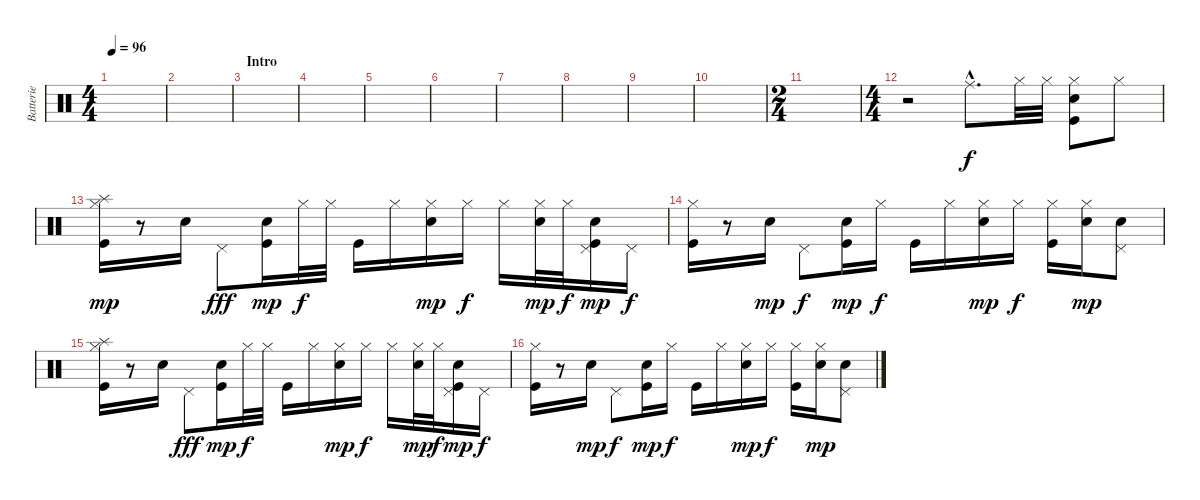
\track ("Batterie" "Batterie") {instrument percussion}
\staff {score}
\articulation defaults
\ts (4 4)
\tempo 96
\clef neutral
\ks c
|
|
\section ("" "Intro")
|
|
|
|
|
|
|
|
\ts (2 4)
|
\ts (4 4)
r.2 "Ride (middle)"{hac}.8{d} "Hi-Hat (closed)".32 "Hi-Hat (closed)".32 ("Hi-Hat (closed)" "Electric Snare (hit)" "Kick (hit)").8 "Hi-Hat (closed)".8 |
("Splash (hit)" "Hi-Hat (closed)" "Kick (hit)").16{dy mp} r.8 "Electric Snare (hit)".16 "Pedal Hi-Hat (hit)".8{dy fff} ("Electric Snare (hit)" "Kick (hit)").16{dy mp} "Hi-Hat (closed)".32{dy f} "Hi-Hat (closed)".32 "Kick (hit)".16 "Hi-Hat (closed)".16 ("Hi-Hat (closed)" "Electric Snare (hit)").16{dy mp} "Hi-Hat (closed)".16{dy f} "Hi-Hat (closed)".16 ("Hi-Hat (closed)" "Electric Snare (hit)").32{dy mp} "Hi-Hat (closed)".32{dy f} ("Pedal Hi-Hat (hit)" "Electric Snare (hit)" "Kick (hit)").16{dy mp} "Pedal Hi-Hat (hit)".16{dy f} |
("Hi-Hat (closed)" "Kick (hit)").16 r.8 "Electric Snare (hit)".16{dy mp} "Pedal Hi-Hat (hit)".8{dy f} ("Electric Snare (hit)" "Kick (hit)").16{dy mp} "Hi-Hat (closed)".16{dy f} "Kick (hit)".16 "Hi-Hat (closed)".16 ("Hi-Hat (closed)" "Electric Snare (hit)").16{dy mp} "Hi-Hat (closed)".16{dy f} ("Hi-Hat (closed)" "Kick (hit)").16 ("Hi-Hat (closed)" "Electric Snare (hit)").16{dy mp} ("Pedal Hi-Hat (hit)" "Electric Snare (hit)").8 |
("Splash (hit)" "Hi-Hat (closed)" "Kick (hit)").16 r.8 "Electric Snare (hit)".16 "Pedal Hi-Hat (hit)".8{dy fff} ("Electric Snare (hit)" "Kick (hit)").16{dy mp} "Hi-Hat (closed)".32{dy f} "Hi-Hat (closed)".32 "Kick (hit)".16 "Hi-Hat (closed)".16 ("Hi-Hat (closed)" "Electric Snare (hit)").16{dy mp} "Hi-Hat (closed)".16{dy f} "Hi-Hat (closed)".16 ("Hi-Hat (closed)" "Electric Snare (hit)").32{dy mp} "Hi-Hat (closed)".32{dy f} ("Pedal Hi-Hat (hit)" "Electric Snare (hit)" "Kick (hit)").16{dy mp} "Pedal Hi-Hat (hit)".16{dy f} |
("Hi-Hat (closed)" "Kick (hit)").16 r.8 "Electric Snare (hit)".16{dy mp} "Pedal Hi-Hat (hit)".8{dy f} ("Electric Snare (hit)" "Kick (hit)").16{dy mp} "Hi-Hat (closed)".16{dy f} "Kick (hit)".16 "Hi-Hat (closed)".16 ("Hi-Hat (closed)" "Electric Snare (hit)").16{dy mp} "Hi-Hat (closed)".16{dy f} ("Hi-Hat (closed)" "Kick (hit)").16 ("Hi-Hat (closed)" "Electric Snare (hit)").16{dy mp} ("Pedal Hi-Hat (hit)" "Electric Snare (hit)").8
